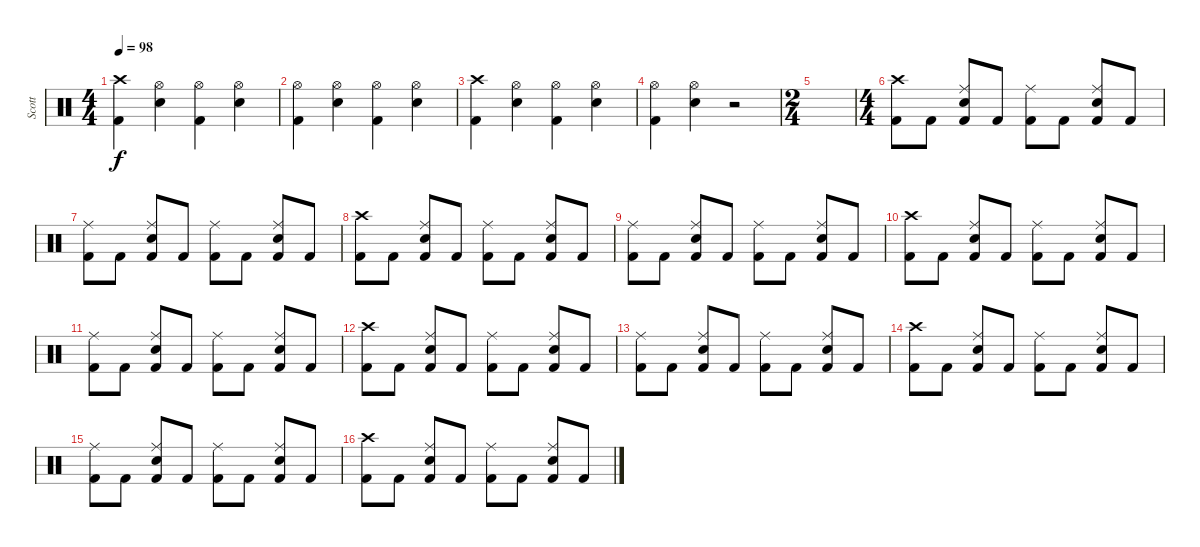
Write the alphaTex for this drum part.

\track ("Scott" "Scott") {instrument percussion}
\staff {score}
\articulation defaults
\ts (4 4)
\tempo 98
\clef neutral
\ks c
("Crash high (hit)" "Kick (hit) 2").4{dy f} ("Hi-Hat (open)" "Snare (hit) 2").4 ("Hi-Hat (open)" "Kick (hit) 2").4 ("Hi-Hat (open)" "Snare (hit) 2").4 |
("Hi-Hat (open)" "Kick (hit) 2").4 ("Hi-Hat (open)" "Snare (hit) 2").4 ("Hi-Hat (open)" "Kick (hit) 2").4 ("Hi-Hat (open)" "Snare (hit) 2").4 |
("Crash high (hit)" "Kick (hit) 2").4 ("Hi-Hat (open)" "Snare (hit) 2").4 ("Hi-Hat (open)" "Kick (hit) 2").4 ("Hi-Hat (open)" "Snare (hit) 2").4 |
("Hi-Hat (open)" "Kick (hit) 2").4 ("Hi-Hat (open)" "Snare (hit) 2").4 r.2 |
\ts (2 4)
|
\ts (4 4)
("Crash high (hit)" "Kick (hit) 2").8 "Kick (hit) 2".8 ("Ride (middle)" "Electric Snare (hit)" "Kick (hit) 2").8 "Kick (hit) 2".8 ("Ride (middle)" "Kick (hit) 2").8 "Kick (hit) 2".8 ("Ride (middle)" "Electric Snare (hit)" "Kick (hit) 2").8 "Kick (hit) 2".8 |
("Ride (middle)" "Kick (hit) 2").8 "Kick (hit) 2".8 ("Ride (middle)" "Electric Snare (hit)" "Kick (hit) 2").8 "Kick (hit) 2".8 ("Ride (middle)" "Kick (hit) 2").8 "Kick (hit) 2".8 ("Ride (middle)" "Electric Snare (hit)" "Kick (hit) 2").8 "Kick (hit) 2".8 |
("Crash high (hit)" "Kick (hit) 2").8 "Kick (hit) 2".8 ("Ride (middle)" "Electric Snare (hit)" "Kick (hit) 2").8 "Kick (hit) 2".8 ("Ride (middle)" "Kick (hit) 2").8 "Kick (hit) 2".8 ("Ride (middle)" "Electric Snare (hit)" "Kick (hit) 2").8 "Kick (hit) 2".8 |
("Ride (middle)" "Kick (hit) 2").8 "Kick (hit) 2".8 ("Ride (middle)" "Electric Snare (hit)" "Kick (hit) 2").8 "Kick (hit) 2".8 ("Ride (middle)" "Kick (hit) 2").8 "Kick (hit) 2".8 ("Ride (middle)" "Electric Snare (hit)" "Kick (hit) 2").8 "Kick (hit) 2".8 |
("Crash high (hit)" "Kick (hit) 2").8 "Kick (hit) 2".8 ("Ride (middle)" "Electric Snare (hit)" "Kick (hit) 2").8 "Kick (hit) 2".8 ("Ride (middle)" "Kick (hit) 2").8 "Kick (hit) 2".8 ("Ride (middle)" "Electric Snare (hit)" "Kick (hit) 2").8 "Kick (hit) 2".8 |
("Ride (middle)" "Kick (hit) 2").8 "Kick (hit) 2".8 ("Ride (middle)" "Electric Snare (hit)" "Kick (hit) 2").8 "Kick (hit) 2".8 ("Ride (middle)" "Kick (hit) 2").8 "Kick (hit) 2".8 ("Ride (middle)" "Electric Snare (hit)" "Kick (hit) 2").8 "Kick (hit) 2".8 |
("Crash high (hit)" "Kick (hit) 2").8 "Kick (hit) 2".8 ("Ride (middle)" "Electric Snare (hit)" "Kick (hit) 2").8 "Kick (hit) 2".8 ("Ride (middle)" "Kick (hit) 2").8 "Kick (hit) 2".8 ("Ride (middle)" "Electric Snare (hit)" "Kick (hit) 2").8 "Kick (hit) 2".8 |
("Ride (middle)" "Kick (hit) 2").8 "Kick (hit) 2".8 ("Ride (middle)" "Electric Snare (hit)" "Kick (hit) 2").8 "Kick (hit) 2".8 ("Ride (middle)" "Kick (hit) 2").8 "Kick (hit) 2".8 ("Ride (middle)" "Electric Snare (hit)" "Kick (hit) 2").8 "Kick (hit) 2".8 |
("Crash high (hit)" "Kick (hit) 2").8 "Kick (hit) 2".8 ("Ride (middle)" "Electric Snare (hit)" "Kick (hit) 2").8 "Kick (hit) 2".8 ("Ride (middle)" "Kick (hit) 2").8 "Kick (hit) 2".8 ("Ride (middle)" "Electric Snare (hit)" "Kick (hit) 2").8 "Kick (hit) 2".8 |
("Ride (middle)" "Kick (hit) 2").8 "Kick (hit) 2".8 ("Ride (middle)" "Electric Snare (hit)" "Kick (hit) 2").8 "Kick (hit) 2".8 ("Ride (middle)" "Kick (hit) 2").8 "Kick (hit) 2".8 ("Ride (middle)" "Electric Snare (hit)" "Kick (hit) 2").8 "Kick (hit) 2".8 |
("Crash high (hit)" "Kick (hit) 2").8 "Kick (hit) 2".8 ("Ride (middle)" "Electric Snare (hit)" "Kick (hit) 2").8 "Kick (hit) 2".8 ("Ride (middle)" "Kick (hit) 2").8 "Kick (hit) 2".8 ("Ride (middle)" "Electric Snare (hit)" "Kick (hit) 2").8 "Kick (hit) 2".8
